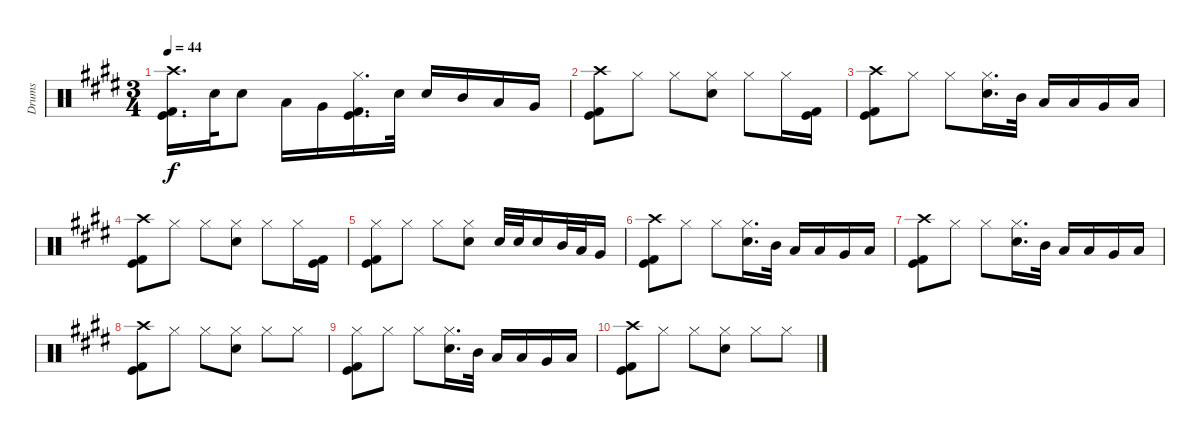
\track ("Drums" "Drums") {instrument percussion}
\staff {score}
\articulation defaults
\ts (3 4)
\tempo 44
\clef neutral
\ks c#minor
("Crash high (hit)" "Kick (hit)" "Kick (hit) 2").16{d dy f} "Electric Snare (hit)".32 "Electric Snare (hit)".8 "Low Tom (hit)".16 "Very Low Tom (hit)".16 ("Hi-Hat (closed)" "Kick (hit)" "Kick (hit) 2").16{d} "Electric Snare (hit)".32 "Electric Snare (hit)".16 "Mid Tom (hit)".16 "Low Tom (hit)".16 "Very Low Tom (hit)".16 |
("Crash high (hit)" "Kick (hit)" "Kick (hit) 2").8 "Hi-Hat (closed)".8 "Hi-Hat (closed)".8 ("Hi-Hat (closed)" "Electric Snare (hit)").8 "Hi-Hat (closed)".8 "Hi-Hat (closed)".16 ("Kick (hit)" "Kick (hit) 2").16 |
("Crash high (hit)" "Kick (hit)" "Kick (hit) 2").8 "Hi-Hat (closed)".8 "Hi-Hat (closed)".8 ("Hi-Hat (closed)" "Electric Snare (hit)").16{d} "Mid Tom (hit)".32 "Low Tom (hit)".16 "Low Floor Tom (hit)".16 "Very Low Tom (hit)".16 "Low Floor Tom (hit)".16 |
("Crash high (hit)" "Kick (hit)" "Kick (hit) 2").8 "Hi-Hat (closed)".8 "Hi-Hat (closed)".8 ("Hi-Hat (closed)" "Electric Snare (hit)").8 "Hi-Hat (closed)".8 "Hi-Hat (closed)".16 ("Kick (hit)" "Kick (hit) 2").16 |
("Hi-Hat (closed)" "Kick (hit)" "Kick (hit) 2").8 "Hi-Hat (closed)".8 "Hi-Hat (closed)".8 ("Hi-Hat (closed)" "Electric Snare (hit)").8 "Electric Snare (hit)".32{volume 0} "Electric Snare (hit)".32 "Electric Snare (hit)".16 "Mid Tom (hit)".32 "Low Tom (hit)".32 "Very Low Tom (hit)".16 |
("Crash high (hit)" "Kick (hit)" "Kick (hit) 2").8 "Hi-Hat (closed)".8 "Hi-Hat (closed)".8 ("Hi-Hat (closed)" "Electric Snare (hit)").16{d} "Mid Tom (hit)".32 "Low Tom (hit)".16 "Low Floor Tom (hit)".16 "Very Low Tom (hit)".16 "Low Floor Tom (hit)".16 |
("Crash high (hit)" "Kick (hit)" "Kick (hit) 2").8 "Hi-Hat (closed)".8 "Hi-Hat (closed)".8 ("Hi-Hat (closed)" "Electric Snare (hit)").16{d} "Mid Tom (hit)".32 "Low Tom (hit)".16 "Low Floor Tom (hit)".16 "Very Low Tom (hit)".16 "Low Floor Tom (hit)".16 |
("Crash high (hit)" "Kick (hit)" "Kick (hit) 2").8 "Hi-Hat (closed)".8 "Hi-Hat (closed)".8 ("Hi-Hat (closed)" "Electric Snare (hit)").8 "Hi-Hat (closed)".8 "Hi-Hat (closed)".8 |
("Hi-Hat (closed)" "Kick (hit)" "Kick (hit) 2").8 "Hi-Hat (closed)".8 "Hi-Hat (closed)".8 ("Hi-Hat (closed)" "Electric Snare (hit)").16{d} "Mid Tom (hit)".32 "Low Tom (hit)".16 "Low Floor Tom (hit)".16 "Very Low Tom (hit)".16 "Low Floor Tom (hit)".16 |
("Crash high (hit)" "Kick (hit)" "Kick (hit) 2").8 "Hi-Hat (closed)".8 "Hi-Hat (closed)".8 ("Hi-Hat (closed)" "Electric Snare (hit)").8 "Hi-Hat (closed)".8 "Hi-Hat (closed)".8
